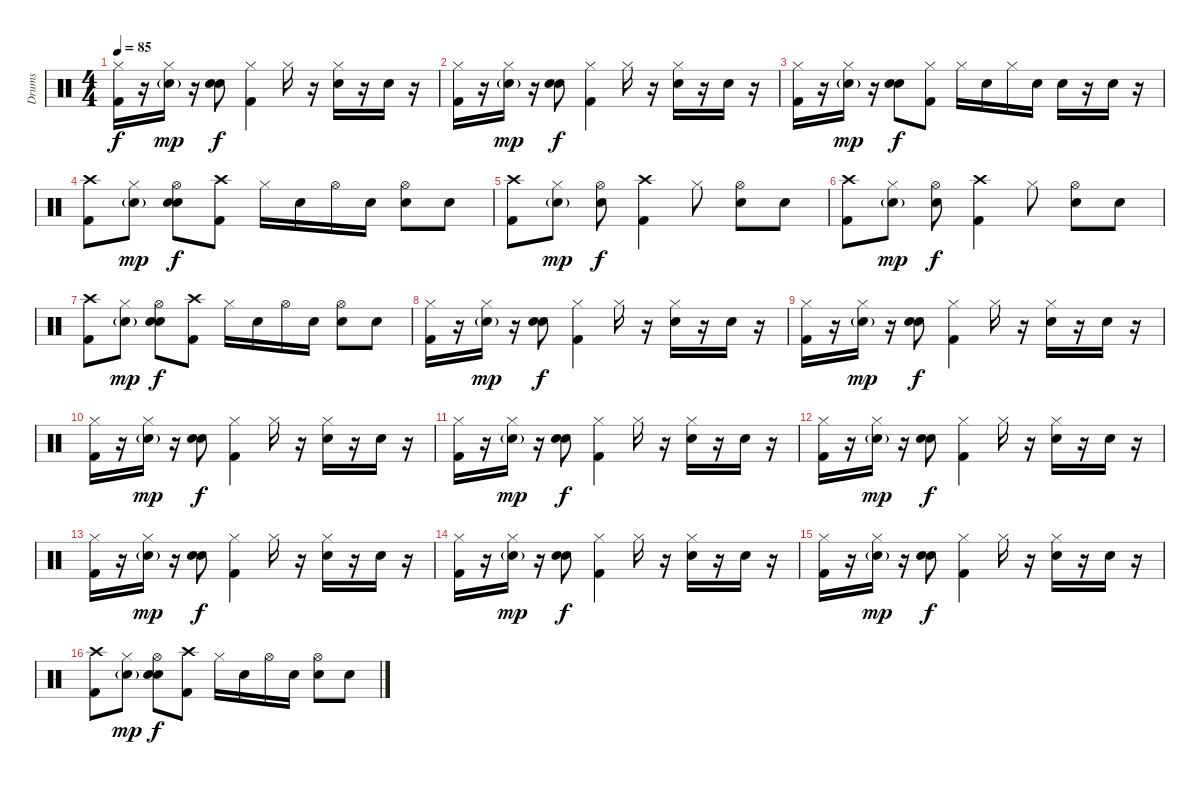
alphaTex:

\track ("Drums" "Drums") {instrument percussion}
\staff {score}
\articulation defaults
\ts (4 4)
\tempo 85
\clef neutral
\ks c
("Hi-Hat (closed)" "Kick (hit) 2").16{dy f} r.16 ("Hi-Hat (closed)" "Electric Snare (hit)"{g}).16{dy mp} r.16 ("Electric Snare (hit)" "Snare (hit) 2").8{dy f} ("Hi-Hat (closed)" "Kick (hit) 2").4 "Hi-Hat (closed)".16 r.16 ("Hi-Hat (closed)" "Snare (hit) 2").16 r.16 "Electric Snare (hit)".16 r.16 |
("Hi-Hat (closed)" "Kick (hit) 2").16 r.16 ("Hi-Hat (closed)" "Electric Snare (hit)"{g}).16{dy mp} r.16 ("Electric Snare (hit)" "Snare (hit) 2").8{dy f} ("Hi-Hat (closed)" "Kick (hit) 2").4 "Hi-Hat (closed)".16 r.16 ("Hi-Hat (closed)" "Snare (hit) 2").16 r.16 "Electric Snare (hit)".16 r.16 |
("Hi-Hat (closed)" "Kick (hit) 2").16 r.16 ("Hi-Hat (closed)" "Electric Snare (hit)"{g}).16{dy mp} r.16 ("Electric Snare (hit)" "Snare (hit) 2").8{dy f} ("Hi-Hat (closed)" "Kick (hit) 2").8 "Hi-Hat (closed)".16 "Electric Snare (hit)".16 "Hi-Hat (closed)".16 "Electric Snare (hit)".16 "Snare (hit) 2".16 r.16 "Electric Snare (hit)".16 r.16 |
("Crash high (hit)" "Kick (hit) 2").8 ("Hi-Hat (closed)" "Electric Snare (hit)"{g}).8{dy mp} ("Snare (hit) 2" "Hi-Hat (open)" "Electric Snare (hit)").8{dy f} ("Crash high (hit)" "Kick (hit) 2").8 "Hi-Hat (closed)".16 "Electric Snare (hit)".16 "Hi-Hat (open)".16 "Electric Snare (hit)".16 ("Hi-Hat (open)" "Snare (hit) 2").8 "Snare (hit) 2".8 |
("Crash high (hit)" "Kick (hit) 2").8 ("Hi-Hat (closed)" "Electric Snare (hit)"{g}).8{dy mp} ("Hi-Hat (open)" "Electric Snare (hit)").8{dy f} ("Crash high (hit)" "Kick (hit) 2").4 "Hi-Hat (closed)".8 ("Hi-Hat (open)" "Electric Snare (hit)").8 "Electric Snare (hit)".8 |
("Crash high (hit)" "Kick (hit) 2").8 ("Hi-Hat (closed)" "Electric Snare (hit)"{g}).8{dy mp} ("Hi-Hat (open)" "Electric Snare (hit)").8{dy f} ("Crash high (hit)" "Kick (hit) 2").4 "Hi-Hat (closed)".8 ("Hi-Hat (open)" "Electric Snare (hit)").8 "Electric Snare (hit)".8 |
("Crash high (hit)" "Kick (hit) 2").8 ("Hi-Hat (closed)" "Electric Snare (hit)"{g}).8{dy mp} ("Snare (hit) 2" "Hi-Hat (open)" "Electric Snare (hit)").8{dy f} ("Crash high (hit)" "Kick (hit) 2").8 "Hi-Hat (closed)".16 "Electric Snare (hit)".16 "Hi-Hat (open)".16 "Electric Snare (hit)".16 ("Hi-Hat (open)" "Snare (hit) 2").8 "Snare (hit) 2".8 |
("Hi-Hat (closed)" "Kick (hit) 2").16 r.16 ("Hi-Hat (closed)" "Electric Snare (hit)"{g}).16{dy mp} r.16 ("Electric Snare (hit)" "Snare (hit) 2").8{dy f} ("Hi-Hat (closed)" "Kick (hit) 2").4 "Hi-Hat (closed)".16 r.16 ("Hi-Hat (closed)" "Snare (hit) 2").16 r.16 "Electric Snare (hit)".16 r.16 |
("Hi-Hat (closed)" "Kick (hit) 2").16 r.16 ("Hi-Hat (closed)" "Electric Snare (hit)"{g}).16{dy mp} r.16 ("Electric Snare (hit)" "Snare (hit) 2").8{dy f} ("Hi-Hat (closed)" "Kick (hit) 2").4 "Hi-Hat (closed)".16 r.16 ("Hi-Hat (closed)" "Snare (hit) 2").16 r.16 "Electric Snare (hit)".16 r.16 |
("Hi-Hat (closed)" "Kick (hit) 2").16 r.16 ("Hi-Hat (closed)" "Electric Snare (hit)"{g}).16{dy mp} r.16 ("Electric Snare (hit)" "Snare (hit) 2").8{dy f} ("Hi-Hat (closed)" "Kick (hit) 2").4 "Hi-Hat (closed)".16 r.16 ("Hi-Hat (closed)" "Snare (hit) 2").16 r.16 "Electric Snare (hit)".16 r.16 |
("Hi-Hat (closed)" "Kick (hit) 2").16 r.16 ("Hi-Hat (closed)" "Electric Snare (hit)"{g}).16{dy mp} r.16 ("Electric Snare (hit)" "Snare (hit) 2").8{dy f} ("Hi-Hat (closed)" "Kick (hit) 2").4 "Hi-Hat (closed)".16 r.16 ("Hi-Hat (closed)" "Snare (hit) 2").16 r.16 "Electric Snare (hit)".16 r.16 |
("Hi-Hat (closed)" "Kick (hit) 2").16 r.16 ("Hi-Hat (closed)" "Electric Snare (hit)"{g}).16{dy mp} r.16 ("Electric Snare (hit)" "Snare (hit) 2").8{dy f} ("Hi-Hat (closed)" "Kick (hit) 2").4 "Hi-Hat (closed)".16 r.16 ("Hi-Hat (closed)" "Snare (hit) 2").16 r.16 "Electric Snare (hit)".16 r.16 |
("Hi-Hat (closed)" "Kick (hit) 2").16 r.16 ("Hi-Hat (closed)" "Electric Snare (hit)"{g}).16{dy mp} r.16 ("Electric Snare (hit)" "Snare (hit) 2").8{dy f} ("Hi-Hat (closed)" "Kick (hit) 2").4 "Hi-Hat (closed)".16 r.16 ("Hi-Hat (closed)" "Snare (hit) 2").16 r.16 "Electric Snare (hit)".16 r.16 |
("Hi-Hat (closed)" "Kick (hit) 2").16 r.16 ("Hi-Hat (closed)" "Electric Snare (hit)"{g}).16{dy mp} r.16 ("Electric Snare (hit)" "Snare (hit) 2").8{dy f} ("Hi-Hat (closed)" "Kick (hit) 2").4 "Hi-Hat (closed)".16 r.16 ("Hi-Hat (closed)" "Snare (hit) 2").16 r.16 "Electric Snare (hit)".16 r.16 |
("Hi-Hat (closed)" "Kick (hit) 2").16 r.16 ("Hi-Hat (closed)" "Electric Snare (hit)"{g}).16{dy mp} r.16 ("Electric Snare (hit)" "Snare (hit) 2").8{dy f} ("Hi-Hat (closed)" "Kick (hit) 2").4 "Hi-Hat (closed)".16 r.16 ("Hi-Hat (closed)" "Snare (hit) 2").16 r.16 "Electric Snare (hit)".16 r.16 |
("Crash high (hit)" "Kick (hit) 2").8 ("Hi-Hat (closed)" "Electric Snare (hit)"{g}).8{dy mp} ("Snare (hit) 2" "Hi-Hat (open)" "Electric Snare (hit)").8{dy f} ("Crash high (hit)" "Kick (hit) 2").8 "Hi-Hat (closed)".16 "Electric Snare (hit)".16 "Hi-Hat (open)".16 "Electric Snare (hit)".16 ("Hi-Hat (open)" "Snare (hit) 2").8 "Snare (hit) 2".8
